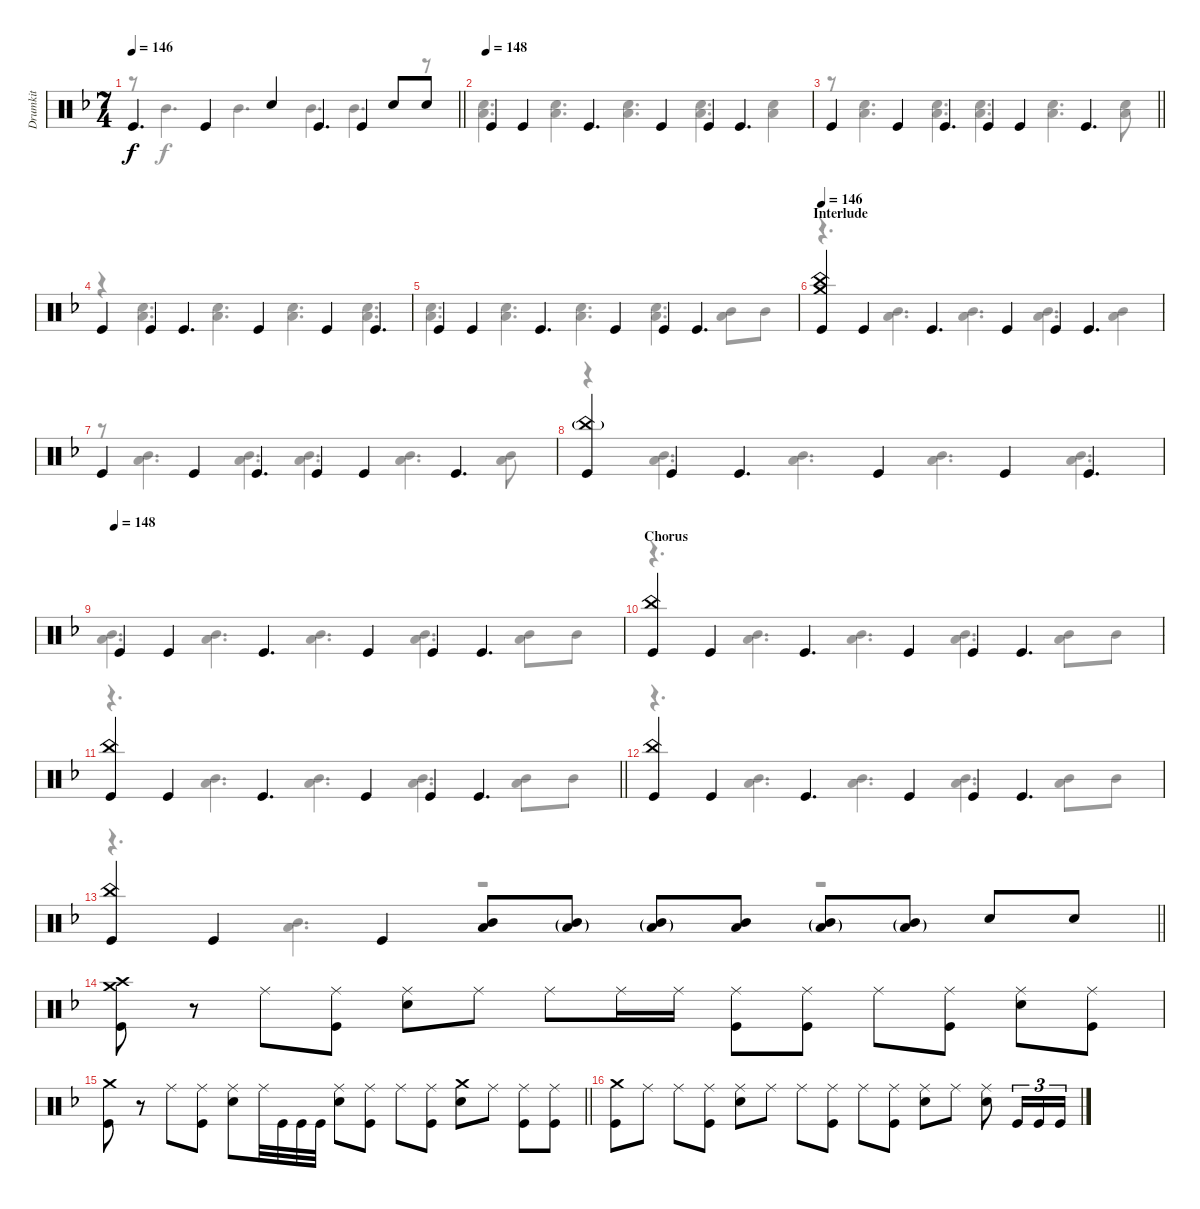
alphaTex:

\track ("Drumkit" "Drumkit") {instrument percussion}
\staff {score}
\articulation defaults
\voice
\ts (7 4)
\tempo 146
\clef neutral
\barLineRight lightlight
\ks dminor "Kick (hit)".4{d dy f} "Kick (hit)".4 "Snare (hit) 2".4 "Kick (hit)".4{d} "Kick (hit)".4 "Snare (hit) 2".8 "Snare (hit) 2".8
|
\tempo (148)
"Kick (hit)".4 "Kick (hit)".4 "Kick (hit)".4{d} "Kick (hit)".4 "Kick (hit)".4 "Kick (hit)".4{d} |
\barLineRight lightlight "Kick (hit)".4 "Kick (hit)".4 "Kick (hit)".4{d} "Kick (hit)".4 "Kick (hit)".4 "Kick (hit)".4{d}
|
"Kick (hit)".4 "Kick (hit)".4 "Kick (hit)".4{d} "Kick (hit)".4 "Kick (hit)".4 "Kick (hit)".4{d} |
"Kick (hit)".4 "Kick (hit)".4 "Kick (hit)".4{d} "Kick (hit)".4 "Kick (hit)".4 "Kick (hit)".4{d} |
\section ("" "Interlude")
\tempo 146
("Kick (hit)" "Crash medium (hit)" "China (hit)").4 "Kick (hit)".4 "Kick (hit)".4{d} "Kick (hit)".4 "Kick (hit)".4 "Kick (hit)".4{d} |
"Kick (hit)".4 "Kick (hit)".4 "Kick (hit)".4{d} "Kick (hit)".4 "Kick (hit)".4 "Kick (hit)".4{d} |
("Kick (hit)" "China (hit)"{g}).4 "Kick (hit)".4 "Kick (hit)".4{d} "Kick (hit)".4 "Kick (hit)".4 "Kick (hit)".4{d} |
\tempo (148)
"Kick (hit)".4 "Kick (hit)".4 "Kick (hit)".4{d} "Kick (hit)".4 "Kick (hit)".4 "Kick (hit)".4{d} |
\section ("" "Chorus")
("Kick (hit)" "China (hit)").4 "Kick (hit)".4 "Kick (hit)".4{d} "Kick (hit)".4 "Kick (hit)".4 "Kick (hit)".4{d} |
\barLineRight lightlight
("Kick (hit)" "China (hit)").4 "Kick (hit)".4 "Kick (hit)".4{d} "Kick (hit)".4 "Kick (hit)".4 "Kick (hit)".4{d} |
("Kick (hit)" "China (hit)").4 "Kick (hit)".4 "Kick (hit)".4{d} "Kick (hit)".4 "Kick (hit)".4 "Kick (hit)".4{d} |
\barLineRight lightlight
("Kick (hit)" "China (hit)").4 "Kick (hit)".4 "Kick (hit)".4 ("Low Floor Tom (hit)" "Mid Tom (hit)").8 ("Low Floor Tom (hit)"{g} "Mid Tom (hit)"{g}).8 ("Low Floor Tom (hit)"{g} "Mid Tom (hit)"{g}).8 ("Low Floor Tom (hit)" "Mid Tom (hit)").8 ("Low Floor Tom (hit)"{g} "Mid Tom (hit)"{g}).8 ("Low Floor Tom (hit)"{g} "Mid Tom (hit)"{g}).8 "Snare (hit) 2".8 "Snare (hit) 2".8 |
("Crash medium (hit)" "Kick (hit)" "Crash high (hit)").8 r.8 "Ride (middle)".8 ("Ride (middle)" "Kick (hit)").8 ("Snare (hit) 2" "Ride (middle)").8 "Ride (middle)".8 "Ride (middle)".8 "Ride (middle)".16 "Ride (middle)".16 ("Ride (middle)" "Kick (hit)").8 ("Kick (hit)" "Ride (middle)").8 "Ride (middle)".8 ("Ride (middle)" "Kick (hit)").8 ("Snare (hit) 2" "Ride (middle)").8 ("Ride (middle)" "Kick (hit)").8 |
\barLineRight lightlight
("Crash medium (hit)" "Kick (hit)").8 r.8 "Ride (middle)".8 ("Ride (middle)" "Kick (hit)").8 ("Snare (hit) 2" "Ride (middle)").8 "Ride (middle)".32 "Kick (hit)".32 "Kick (hit)".32 "Kick (hit)".32 ("Ride (middle)" "Snare (hit) 2").8 ("Ride (middle)" "Kick (hit)").8 "Ride (middle)".8 ("Kick (hit)" "Ride (middle)").8 ("Snare (hit) 2" "Crash medium (hit)").8 "Ride (middle)".8 ("Ride (middle)" "Kick (hit)").8 ("Ride (middle)" "Kick (hit)").8 |
("Crash medium (hit)" "Kick (hit)").8 "Ride (middle)".8 "Ride (middle)".8 ("Ride (middle)" "Kick (hit)").8 ("Snare (hit) 2" "Ride (middle)").8 "Ride (middle)".8 "Ride (middle)".8 ("Ride (middle)" "Kick (hit)").8 "Ride (middle)".8 ("Kick (hit)" "Ride (middle)").8 ("Ride (middle)" "Snare (hit) 2").8 "Ride (middle)".8 ("Ride (middle)" "Snare (hit) 2").8 "Kick (hit)".16{tu (3 2)} "Kick (hit)".16{tu (3 2)} "Kick (hit)".16{tu (3 2)}
\voice
\clef neutral
\ottava regular
\simile none
\barLineRight lightlight
\ks dminor
r.8{dy f} "Mid Tom (hit)".4{d} "Mid Tom (hit)".4{d} "Mid Tom (hit)".4{d} "Mid Tom (hit)".4{d} r.8 |
("Snare (hit) 2" "Low Floor Tom (hit)").4{d} ("Snare (hit) 2" "Low Floor Tom (hit)").4{d} ("Snare (hit) 2" "Low Floor Tom (hit)").4{d} ("Snare (hit) 2" "Low Floor Tom (hit)").4{d} ("Snare (hit) 2" "Low Floor Tom (hit)").4 |
\barLineRight lightlight
r.8 ("Snare (hit) 2" "Low Floor Tom (hit)").4{d} ("Snare (hit) 2" "Low Floor Tom (hit)").4{d} ("Snare (hit) 2" "Low Floor Tom (hit)").4{d} ("Snare (hit) 2" "Low Floor Tom (hit)").4{d} ("Snare (hit) 2" "Low Floor Tom (hit)").8 |
r.4 ("Snare (hit) 2" "Low Floor Tom (hit)").4{d} ("Snare (hit) 2" "Low Floor Tom (hit)").4{d} ("Snare (hit) 2" "Low Floor Tom (hit)").4{d} ("Snare (hit) 2" "Low Floor Tom (hit)").4{d} |
("Snare (hit) 2" "Low Floor Tom (hit)").4{d} ("Snare (hit) 2" "Low Floor Tom (hit)").4{d} ("Snare (hit) 2" "Low Floor Tom (hit)").4{d} ("Snare (hit) 2" "Low Floor Tom (hit)").4{d} ("Low Floor Tom (hit)" "Mid Tom (hit)").8 "Mid Tom (hit)".8 |
r.4{d} ("Low Floor Tom (hit)" "Mid Tom (hit)").4{d} ("Low Floor Tom (hit)" "Mid Tom (hit)").4{d} ("Low Floor Tom (hit)" "Mid Tom (hit)").4{d} ("Low Floor Tom (hit)" "Mid Tom (hit)").4 |
r.8 ("Low Floor Tom (hit)" "Mid Tom (hit)").4{d} ("Low Floor Tom (hit)" "Mid Tom (hit)").4{d} ("Low Floor Tom (hit)" "Mid Tom (hit)").4{d} ("Low Floor Tom (hit)" "Mid Tom (hit)").4{d} ("Low Floor Tom (hit)" "Mid Tom (hit)").8 |
r.4 ("Low Floor Tom (hit)" "Mid Tom (hit)").4{d} ("Low Floor Tom (hit)" "Mid Tom (hit)").4{d} ("Low Floor Tom (hit)" "Mid Tom (hit)").4{d} ("Low Floor Tom (hit)" "Mid Tom (hit)").4{d} |
("Low Floor Tom (hit)" "Mid Tom (hit)").4{d} ("Low Floor Tom (hit)" "Mid Tom (hit)").4{d} ("Low Floor Tom (hit)" "Mid Tom (hit)").4{d} ("Low Floor Tom (hit)" "Mid Tom (hit)").4{d} ("Low Floor Tom (hit)" "Mid Tom (hit)").8 "Mid Tom (hit)".8 |
r.4{d} ("Low Floor Tom (hit)" "Mid Tom (hit)").4{d} ("Low Floor Tom (hit)" "Mid Tom (hit)").4{d} ("Low Floor Tom (hit)" "Mid Tom (hit)").4{d} ("Low Floor Tom (hit)" "Mid Tom (hit)").8 "Mid Tom (hit)".8 |
\barLineRight lightlight
r.4{d} ("Low Floor Tom (hit)" "Mid Tom (hit)").4{d} ("Low Floor Tom (hit)" "Mid Tom (hit)").4{d} ("Low Floor Tom (hit)" "Mid Tom (hit)").4{d} ("Low Floor Tom (hit)" "Mid Tom (hit)").8 "Mid Tom (hit)".8 |
r.4{d} ("Low Floor Tom (hit)" "Mid Tom (hit)").4{d} ("Low Floor Tom (hit)" "Mid Tom (hit)").4{d} ("Low Floor Tom (hit)" "Mid Tom (hit)").4{d} ("Low Floor Tom (hit)" "Mid Tom (hit)").8 "Mid Tom (hit)".8 |
\barLineRight lightlight
r.4{d} ("Low Floor Tom (hit)" "Mid Tom (hit)").4{d} r.2 r.2 |
|
\barLineRight lightlight
|
